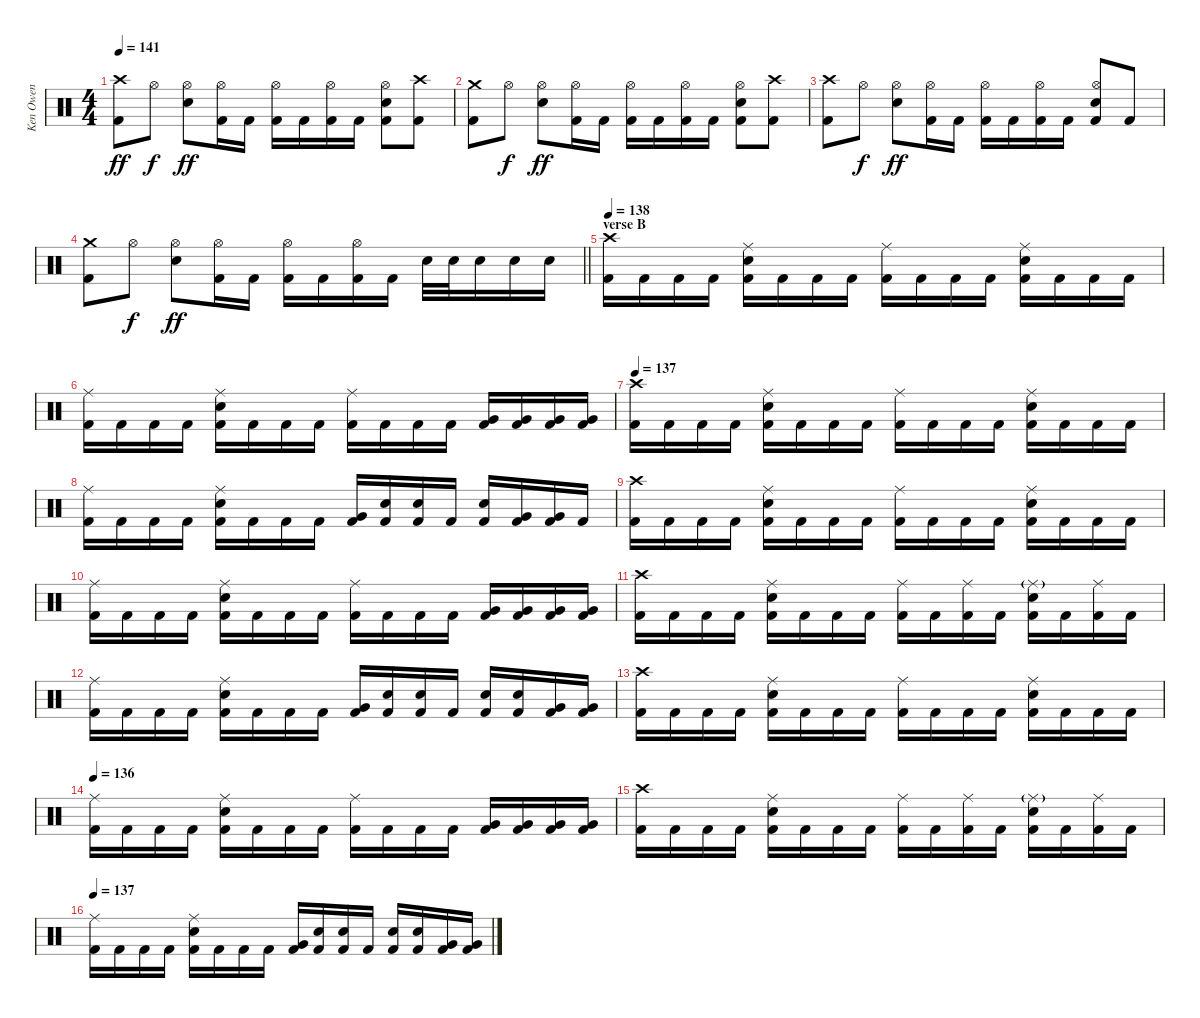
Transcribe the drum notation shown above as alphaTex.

\track ("Ken Owen" "Ken Owen") {instrument percussion}
\staff {score}
\articulation defaults
\ts (4 4)
\tempo 141
\clef neutral
\ks c
("Crash high (hit)" "Kick (hit) 2").8{dy ff} "Hi-Hat (open)".8{dy f} ("Hi-Hat (open)" "Snare (hit) 2").8{dy ff} ("Hi-Hat (open)" "Kick (hit) 2").16 "Kick (hit) 2".16 ("Hi-Hat (open)" "Kick (hit) 2").16 "Kick (hit) 2".16 ("Hi-Hat (open)" "Kick (hit) 2").16 "Kick (hit) 2".16 ("Hi-Hat (open)" "Snare (hit) 2" "Kick (hit) 2").8 ("Crash high (hit)" "Kick (hit) 2").8 |
("Crash medium (hit)" "Kick (hit) 2").8 "Hi-Hat (open)".8{dy f} ("Hi-Hat (open)" "Snare (hit) 2").8{dy ff} ("Hi-Hat (open)" "Kick (hit) 2").16 "Kick (hit) 2".16 ("Hi-Hat (open)" "Kick (hit) 2").16 "Kick (hit) 2".16 ("Hi-Hat (open)" "Kick (hit) 2").16 "Kick (hit) 2".16 ("Hi-Hat (open)" "Snare (hit) 2" "Kick (hit) 2").8 ("Crash high (hit)" "Kick (hit) 2").8 |
("Crash high (hit)" "Kick (hit) 2").8 "Hi-Hat (open)".8{dy f} ("Hi-Hat (open)" "Snare (hit) 2").8{dy ff} ("Hi-Hat (open)" "Kick (hit) 2").16 "Kick (hit) 2".16 ("Hi-Hat (open)" "Kick (hit) 2").16 "Kick (hit) 2".16 ("Hi-Hat (open)" "Kick (hit) 2").16 "Kick (hit) 2".16 ("Hi-Hat (open)" "Snare (hit) 2" "Kick (hit) 2").8 "Kick (hit) 2".8 |
\barLineRight lightlight
("Crash medium (hit)" "Kick (hit) 2").8 "Hi-Hat (open)".8{dy f} ("Hi-Hat (open)" "Snare (hit) 2").8{dy ff} ("Hi-Hat (open)" "Kick (hit) 2").16 "Kick (hit) 2".16 ("Hi-Hat (open)" "Kick (hit) 2").16 "Kick (hit) 2".16 ("Hi-Hat (open)" "Kick (hit) 2").16 "Kick (hit) 2".16 "Snare (hit) 2".32 "Snare (hit) 2".32 "Snare (hit) 2".16 "Snare (hit) 2".16 "Snare (hit) 2".16 |
\section ("" "verse B")
\tempo 138
("Crash high (hit)" "Kick (hit) 2").16 "Kick (hit) 2".16 "Kick (hit) 2".16 "Kick (hit) 2".16 ("Ride (middle)" "Snare (hit) 2" "Kick (hit) 2").16 "Kick (hit) 2".16 "Kick (hit) 2".16 "Kick (hit) 2".16 ("Ride (middle)" "Kick (hit) 2").16 "Kick (hit) 2".16 "Kick (hit) 2".16 "Kick (hit) 2".16 ("Ride (middle)" "Snare (hit) 2" "Kick (hit) 2").16 "Kick (hit) 2".16 "Kick (hit) 2".16 "Kick (hit) 2".16 |
("Ride (middle)" "Kick (hit) 2").16 "Kick (hit) 2".16 "Kick (hit) 2".16 "Kick (hit) 2".16 ("Ride (middle)" "Snare (hit) 2" "Kick (hit) 2").16 "Kick (hit) 2".16 "Kick (hit) 2".16 "Kick (hit) 2".16 ("Ride (middle)" "Kick (hit) 2").16 "Kick (hit) 2".16 "Kick (hit) 2".16 "Kick (hit) 2".16 ("Very Low Tom (hit)" "Kick (hit) 2").16 ("Very Low Tom (hit)" "Kick (hit) 2").16 ("Very Low Tom (hit)" "Kick (hit) 2").16 ("Very Low Tom (hit)" "Kick (hit) 2").16 |
\tempo 137
("Crash high (hit)" "Kick (hit) 2").16 "Kick (hit) 2".16 "Kick (hit) 2".16 "Kick (hit) 2".16 ("Ride (middle)" "Snare (hit) 2" "Kick (hit) 2").16 "Kick (hit) 2".16 "Kick (hit) 2".16 "Kick (hit) 2".16 ("Ride (middle)" "Kick (hit) 2").16 "Kick (hit) 2".16 "Kick (hit) 2".16 "Kick (hit) 2".16 ("Ride (middle)" "Snare (hit) 2" "Kick (hit) 2").16 "Kick (hit) 2".16 "Kick (hit) 2".16 "Kick (hit) 2".16 |
("Ride (middle)" "Kick (hit) 2").16 "Kick (hit) 2".16 "Kick (hit) 2".16 "Kick (hit) 2".16 ("Ride (middle)" "Snare (hit) 2" "Kick (hit) 2").16 "Kick (hit) 2".16 "Kick (hit) 2".16 "Kick (hit) 2".16 ("Very Low Tom (hit)" "Kick (hit) 2").16 ("Snare (hit) 2" "Kick (hit) 2").16 ("Snare (hit) 2" "Kick (hit) 2").16 "Kick (hit) 2".16 ("Snare (hit) 2" "Kick (hit) 2").16 ("Very Low Tom (hit)" "Kick (hit) 2").16 ("Very Low Tom (hit)" "Kick (hit) 2").16 "Kick (hit) 2".16 |
("Crash high (hit)" "Kick (hit) 2").16 "Kick (hit) 2".16 "Kick (hit) 2".16 "Kick (hit) 2".16 ("Ride (middle)" "Snare (hit) 2" "Kick (hit) 2").16 "Kick (hit) 2".16 "Kick (hit) 2".16 "Kick (hit) 2".16 ("Ride (middle)" "Kick (hit) 2").16 "Kick (hit) 2".16 "Kick (hit) 2".16 "Kick (hit) 2".16 ("Ride (middle)" "Snare (hit) 2" "Kick (hit) 2").16 "Kick (hit) 2".16 "Kick (hit) 2".16 "Kick (hit) 2".16 |
("Ride (middle)" "Kick (hit) 2").16 "Kick (hit) 2".16 "Kick (hit) 2".16 "Kick (hit) 2".16 ("Ride (middle)" "Snare (hit) 2" "Kick (hit) 2").16 "Kick (hit) 2".16 "Kick (hit) 2".16 "Kick (hit) 2".16 ("Ride (middle)" "Kick (hit) 2").16 "Kick (hit) 2".16 "Kick (hit) 2".16 "Kick (hit) 2".16 ("Very Low Tom (hit)" "Kick (hit) 2").16 ("Very Low Tom (hit)" "Kick (hit) 2").16 ("Very Low Tom (hit)" "Kick (hit) 2").16 ("Very Low Tom (hit)" "Kick (hit) 2").16 |
("Crash high (hit)" "Kick (hit) 2").16 "Kick (hit) 2".16 "Kick (hit) 2".16 "Kick (hit) 2".16 ("Ride (middle)" "Snare (hit) 2" "Kick (hit) 2").16 "Kick (hit) 2".16 "Kick (hit) 2".16 "Kick (hit) 2".16 ("Ride (middle)" "Kick (hit) 2").16 "Kick (hit) 2".16 ("Ride (middle)" "Kick (hit) 2").16 "Kick (hit) 2".16 ("Ride (middle)"{g} "Snare (hit) 2" "Kick (hit) 2").16 "Kick (hit) 2".16 ("Ride (middle)" "Kick (hit) 2").16 "Kick (hit) 2".16 |
("Ride (middle)" "Kick (hit) 2").16 "Kick (hit) 2".16 "Kick (hit) 2".16 "Kick (hit) 2".16 ("Ride (middle)" "Snare (hit) 2" "Kick (hit) 2").16 "Kick (hit) 2".16 "Kick (hit) 2".16 "Kick (hit) 2".16 ("Very Low Tom (hit)" "Kick (hit) 2").16 ("Snare (hit) 2" "Kick (hit) 2").16 ("Snare (hit) 2" "Kick (hit) 2").16 "Kick (hit) 2".16 ("Snare (hit) 2" "Kick (hit) 2").16 ("Snare (hit) 2" "Kick (hit) 2").16 ("Very Low Tom (hit)" "Kick (hit) 2").16 ("Very Low Tom (hit)" "Kick (hit) 2").16 |
("Crash high (hit)" "Kick (hit) 2").16 "Kick (hit) 2".16 "Kick (hit) 2".16 "Kick (hit) 2".16 ("Ride (middle)" "Snare (hit) 2" "Kick (hit) 2").16 "Kick (hit) 2".16 "Kick (hit) 2".16 "Kick (hit) 2".16 ("Ride (middle)" "Kick (hit) 2").16 "Kick (hit) 2".16 "Kick (hit) 2".16 "Kick (hit) 2".16 ("Ride (middle)" "Snare (hit) 2" "Kick (hit) 2").16 "Kick (hit) 2".16 "Kick (hit) 2".16 "Kick (hit) 2".16 |
\tempo 136
("Ride (middle)" "Kick (hit) 2").16 "Kick (hit) 2".16 "Kick (hit) 2".16 "Kick (hit) 2".16 ("Ride (middle)" "Snare (hit) 2" "Kick (hit) 2").16 "Kick (hit) 2".16 "Kick (hit) 2".16 "Kick (hit) 2".16 ("Ride (middle)" "Kick (hit) 2").16 "Kick (hit) 2".16 "Kick (hit) 2".16 "Kick (hit) 2".16 ("Very Low Tom (hit)" "Kick (hit) 2").16 ("Very Low Tom (hit)" "Kick (hit) 2").16 ("Very Low Tom (hit)" "Kick (hit) 2").16 ("Very Low Tom (hit)" "Kick (hit) 2").16 |
("Crash high (hit)" "Kick (hit) 2").16 "Kick (hit) 2".16 "Kick (hit) 2".16 "Kick (hit) 2".16 ("Ride (middle)" "Snare (hit) 2" "Kick (hit) 2").16 "Kick (hit) 2".16 "Kick (hit) 2".16 "Kick (hit) 2".16 ("Ride (middle)" "Kick (hit) 2").16 "Kick (hit) 2".16 ("Ride (middle)" "Kick (hit) 2").16 "Kick (hit) 2".16 ("Ride (middle)"{g} "Snare (hit) 2" "Kick (hit) 2").16 "Kick (hit) 2".16 ("Ride (middle)" "Kick (hit) 2").16 "Kick (hit) 2".16 |
\tempo 137
("Ride (middle)" "Kick (hit) 2").16 "Kick (hit) 2".16 "Kick (hit) 2".16 "Kick (hit) 2".16 ("Ride (middle)" "Snare (hit) 2" "Kick (hit) 2").16 "Kick (hit) 2".16 "Kick (hit) 2".16 "Kick (hit) 2".16 ("Very Low Tom (hit)" "Kick (hit) 2").16 ("Snare (hit) 2" "Kick (hit) 2").16 ("Snare (hit) 2" "Kick (hit) 2").16 "Kick (hit) 2".16 ("Snare (hit) 2" "Kick (hit) 2").16 ("Snare (hit) 2" "Kick (hit) 2").16 ("Very Low Tom (hit)" "Kick (hit) 2").16 ("Very Low Tom (hit)" "Kick (hit) 2").16
